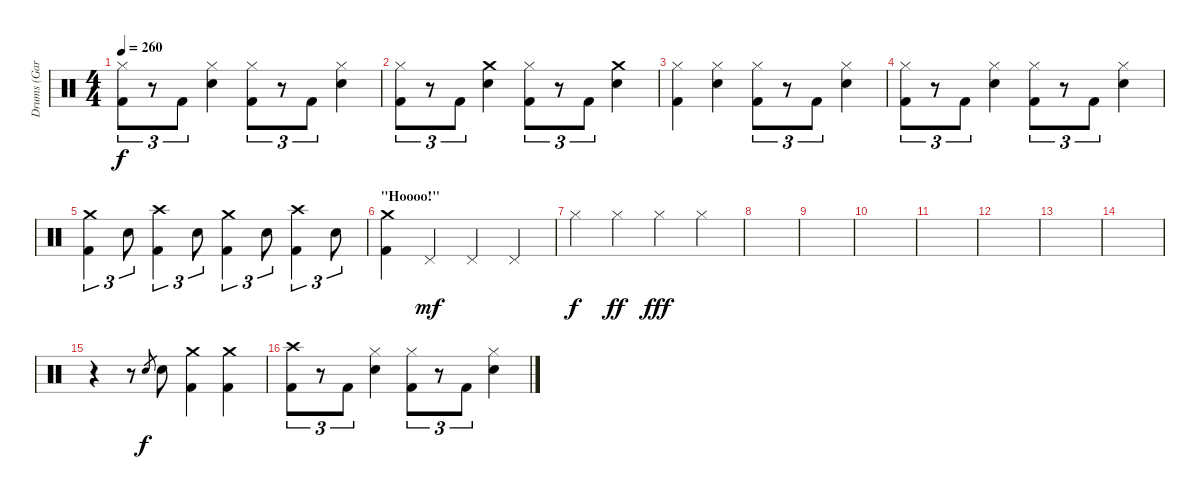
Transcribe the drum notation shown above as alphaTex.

\track ("Drums (Gar Samuelson)" "Drums (Gar") {instrument percussion}
\staff {score}
\articulation defaults
\ts (4 4)
\tempo 260
\clef neutral
\ks c
("Hi-Hat (closed)" "Kick (hit) 2").8{tu (3 2) dy f} r.8{tu (3 2)} "Kick (hit) 2".8{tu (3 2)} ("Hi-Hat (closed)" "Snare (hit) 2").4 ("Hi-Hat (closed)" "Kick (hit) 2").8{tu (3 2)} r.8{tu (3 2)} "Kick (hit) 2".8{tu (3 2)} ("Hi-Hat (closed)" "Snare (hit) 2").4 |
("Hi-Hat (closed)" "Kick (hit) 2").8{tu (3 2)} r.8{tu (3 2)} "Kick (hit) 2".8{tu (3 2)} ("Crash medium (hit)" "Snare (hit) 2").4 ("Hi-Hat (closed)" "Kick (hit) 2").8{tu (3 2)} r.8{tu (3 2)} "Kick (hit) 2".8{tu (3 2)} ("Crash medium (hit)" "Snare (hit) 2").4 |
("Hi-Hat (closed)" "Kick (hit) 2").4 ("Hi-Hat (closed)" "Snare (hit) 2").4 ("Hi-Hat (closed)" "Kick (hit) 2").8{tu (3 2)} r.8{tu (3 2)} "Kick (hit) 2".8{tu (3 2)} ("Hi-Hat (closed)" "Snare (hit) 2").4 |
("Hi-Hat (closed)" "Kick (hit) 2").8{tu (3 2)} r.8{tu (3 2)} "Kick (hit) 2".8{tu (3 2)} ("Hi-Hat (closed)" "Snare (hit) 2").4 ("Hi-Hat (closed)" "Kick (hit) 2").8{tu (3 2)} r.8{tu (3 2)} "Kick (hit) 2".8{tu (3 2)} ("Hi-Hat (closed)" "Snare (hit) 2").4 |
("Crash medium (hit)" "Kick (hit) 2").4{tu (3 2)} "Snare (hit) 2".8{tu (3 2)} ("Crash high (hit)" "Kick (hit) 2").4{tu (3 2)} "Snare (hit) 2".8{tu (3 2)} ("Crash medium (hit)" "Kick (hit) 2").4{tu (3 2)} "Snare (hit) 2".8{tu (3 2)} ("Crash high (hit)" "Kick (hit) 2").4{tu (3 2)} "Snare (hit) 2".8{tu (3 2)} |
\section ("" "\"Hoooo!\"")
("Crash medium (hit)" "Kick (hit) 2").4 "Pedal Hi-Hat (hit)".4{dy mf} "Pedal Hi-Hat (hit)".4 "Pedal Hi-Hat (hit)".4 |
"Hi-Hat (closed)".4{dy f} "Hi-Hat (closed)".4{dy ff} "Hi-Hat (closed)".4{dy fff} "Hi-Hat (closed)".4 |
|
|
|
|
|
|
|
r.4 r.8 "Snare (hit) 2".8{gr dy f} "Snare (hit) 2".8 ("Crash medium (hit)" "Kick (hit) 2").4 ("Crash medium (hit)" "Kick (hit) 2").4 |
("Crash high (hit)" "Kick (hit) 2").8{tu (3 2)} r.8{tu (3 2)} "Kick (hit) 2".8{tu (3 2)} ("Hi-Hat (closed)" "Snare (hit) 2").4 ("Hi-Hat (closed)" "Kick (hit) 2").8{tu (3 2)} r.8{tu (3 2)} "Kick (hit) 2".8{tu (3 2)} ("Hi-Hat (closed)" "Snare (hit) 2").4
